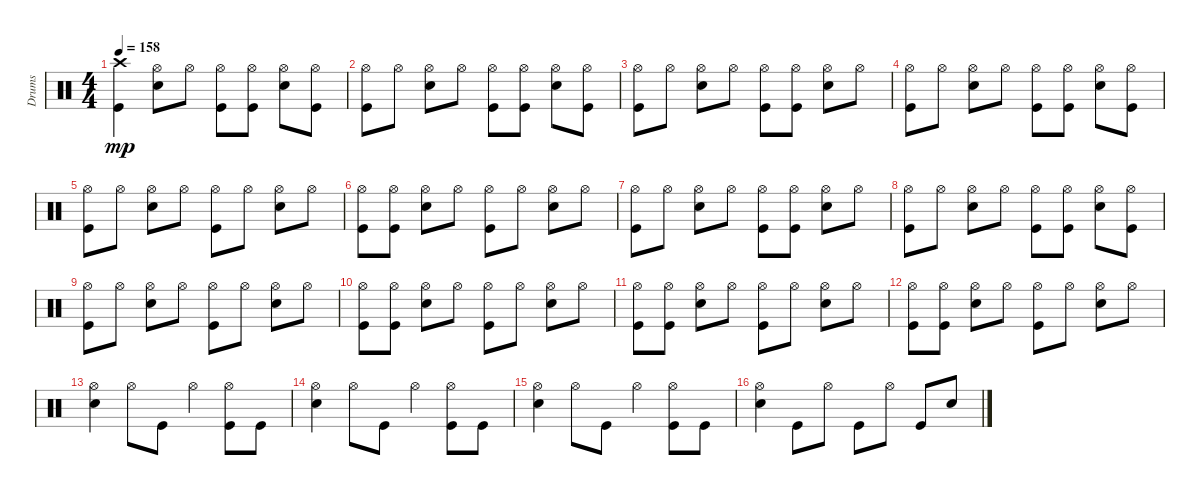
\track ("Drums" "Drums") {instrument percussion}
\staff {score}
\articulation defaults
\ts (4 4)
\tempo 158
\clef neutral
\ks c
("Crash high (hit)" "Kick (hit)").4{dy mp} ("Hi-Hat (open)" "Snare (hit) 2").8 "Hi-Hat (open)".8 ("Hi-Hat (open)" "Kick (hit)").8 ("Hi-Hat (open)" "Kick (hit)").8 ("Hi-Hat (open)" "Snare (hit) 2").8 ("Hi-Hat (open)" "Kick (hit)").8 |
("Hi-Hat (open)" "Kick (hit)").8 "Hi-Hat (open)".8 ("Hi-Hat (open)" "Snare (hit) 2").8 "Hi-Hat (open)".8 ("Hi-Hat (open)" "Kick (hit)").8 ("Hi-Hat (open)" "Kick (hit)").8 ("Hi-Hat (open)" "Snare (hit) 2").8 ("Hi-Hat (open)" "Kick (hit)").8 |
("Hi-Hat (open)" "Kick (hit)").8 "Hi-Hat (open)".8 ("Hi-Hat (open)" "Snare (hit) 2").8 "Hi-Hat (open)".8 ("Hi-Hat (open)" "Kick (hit)").8 ("Hi-Hat (open)" "Kick (hit)").8 ("Hi-Hat (open)" "Snare (hit) 2").8 "Hi-Hat (open)".8 |
("Hi-Hat (open)" "Kick (hit)").8 "Hi-Hat (open)".8 ("Hi-Hat (open)" "Snare (hit) 2").8 "Hi-Hat (open)".8 ("Hi-Hat (open)" "Kick (hit)").8 ("Hi-Hat (open)" "Kick (hit)").8 ("Hi-Hat (open)" "Snare (hit) 2").8 ("Hi-Hat (open)" "Kick (hit)").8 |
("Hi-Hat (open)" "Kick (hit)").8 "Hi-Hat (open)".8 ("Hi-Hat (open)" "Snare (hit) 2").8 "Hi-Hat (open)".8 ("Hi-Hat (open)" "Kick (hit)").8 "Hi-Hat (open)".8 ("Hi-Hat (open)" "Snare (hit) 2").8 "Hi-Hat (open)".8 |
("Hi-Hat (open)" "Kick (hit)").8 ("Hi-Hat (open)" "Kick (hit)").8 ("Hi-Hat (open)" "Snare (hit) 2").8 "Hi-Hat (open)".8 ("Hi-Hat (open)" "Kick (hit)").8 "Hi-Hat (open)".8 ("Hi-Hat (open)" "Snare (hit) 2").8 "Hi-Hat (open)".8 |
("Hi-Hat (open)" "Kick (hit)").8 "Hi-Hat (open)".8 ("Hi-Hat (open)" "Snare (hit) 2").8 "Hi-Hat (open)".8 ("Hi-Hat (open)" "Kick (hit)").8 ("Hi-Hat (open)" "Kick (hit)").8 ("Hi-Hat (open)" "Snare (hit) 2").8 "Hi-Hat (open)".8 |
("Hi-Hat (open)" "Kick (hit)").8 "Hi-Hat (open)".8 ("Hi-Hat (open)" "Snare (hit) 2").8 "Hi-Hat (open)".8 ("Hi-Hat (open)" "Kick (hit)").8 ("Hi-Hat (open)" "Kick (hit)").8 ("Hi-Hat (open)" "Snare (hit) 2").8 ("Hi-Hat (open)" "Kick (hit)").8 |
("Hi-Hat (open)" "Kick (hit)").8 "Hi-Hat (open)".8 ("Hi-Hat (open)" "Snare (hit) 2").8 "Hi-Hat (open)".8 ("Hi-Hat (open)" "Kick (hit)").8 "Hi-Hat (open)".8 ("Hi-Hat (open)" "Snare (hit) 2").8 "Hi-Hat (open)".8 |
("Hi-Hat (open)" "Kick (hit)").8 ("Hi-Hat (open)" "Kick (hit)").8 ("Hi-Hat (open)" "Snare (hit) 2").8 "Hi-Hat (open)".8 ("Hi-Hat (open)" "Kick (hit)").8 "Hi-Hat (open)".8 ("Hi-Hat (open)" "Snare (hit) 2").8 "Hi-Hat (open)".8 |
("Hi-Hat (open)" "Kick (hit)").8 ("Hi-Hat (open)" "Kick (hit)").8 ("Hi-Hat (open)" "Snare (hit) 2").8 "Hi-Hat (open)".8 ("Hi-Hat (open)" "Kick (hit)").8 "Hi-Hat (open)".8 ("Hi-Hat (open)" "Snare (hit) 2").8 "Hi-Hat (open)".8 |
("Hi-Hat (open)" "Kick (hit)").8 ("Hi-Hat (open)" "Kick (hit)").8 ("Hi-Hat (open)" "Snare (hit) 2").8 "Hi-Hat (open)".8 ("Hi-Hat (open)" "Kick (hit)").8 "Hi-Hat (open)".8 ("Hi-Hat (open)" "Snare (hit) 2").8 "Hi-Hat (open)".8 |
("Hi-Hat (open)" "Snare (hit) 2").4 "Hi-Hat (open)".8 "Kick (hit)".8 "Hi-Hat (open)".4 ("Hi-Hat (open)" "Kick (hit)").8 "Kick (hit)".8 |
("Hi-Hat (open)" "Snare (hit) 2").4 "Hi-Hat (open)".8 "Kick (hit)".8 "Hi-Hat (open)".4 ("Hi-Hat (open)" "Kick (hit)").8 "Kick (hit)".8 |
("Hi-Hat (open)" "Snare (hit) 2").4 "Hi-Hat (open)".8 "Kick (hit)".8 "Hi-Hat (open)".4 ("Hi-Hat (open)" "Kick (hit)").8 "Kick (hit)".8 |
("Hi-Hat (open)" "Snare (hit) 2").4 "Kick (hit)".8 "Hi-Hat (open)".8 "Kick (hit)".8 "Hi-Hat (open)".8 "Kick (hit)".8 "Snare (hit) 2".8
